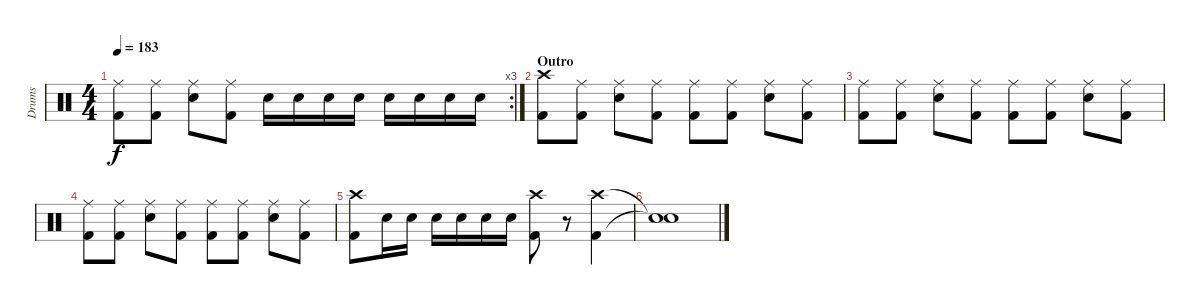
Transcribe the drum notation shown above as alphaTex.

\track ("Drums" "Drums") {instrument percussion}
\staff {score}
\articulation defaults
\rc 3
\ts (4 4)
\tempo 183
\clef neutral
\ks c
("Ride (middle)" "Kick (hit) 2").8{dy f} ("Ride (middle)" "Kick (hit) 2").8 ("Ride (middle)" "Electric Snare (hit)").8 ("Ride (middle)" "Kick (hit) 2").8 "Electric Snare (hit)".16 "Electric Snare (hit)".16 "Electric Snare (hit)".16 "Electric Snare (hit)".16 "Electric Snare (hit)".16 "Electric Snare (hit)".16 "Electric Snare (hit)".16 "Electric Snare (hit)".16 |
\section ("" "Outro")
("Crash high (hit)" "Kick (hit) 2").8 ("Ride (middle)" "Kick (hit) 2").8 ("Ride (middle)" "Electric Snare (hit)").8 ("Ride (middle)" "Kick (hit) 2").8 ("Ride (middle)" "Kick (hit) 2").8 ("Ride (middle)" "Kick (hit) 2").8 ("Ride (middle)" "Electric Snare (hit)").8 ("Ride (middle)" "Kick (hit) 2").8 |
("Ride (middle)" "Kick (hit) 2").8 ("Ride (middle)" "Kick (hit) 2").8 ("Ride (middle)" "Electric Snare (hit)").8 ("Ride (middle)" "Kick (hit) 2").8 ("Ride (middle)" "Kick (hit) 2").8 ("Ride (middle)" "Kick (hit) 2").8 ("Ride (middle)" "Electric Snare (hit)").8 ("Ride (middle)" "Kick (hit) 2").8 |
("Ride (middle)" "Kick (hit) 2").8 ("Ride (middle)" "Kick (hit) 2").8 ("Ride (middle)" "Electric Snare (hit)").8 ("Ride (middle)" "Kick (hit) 2").8 ("Ride (middle)" "Kick (hit) 2").8 ("Ride (middle)" "Kick (hit) 2").8 ("Ride (middle)" "Electric Snare (hit)").8 ("Ride (middle)" "Kick (hit) 2").8 |
("Crash high (hit)" "Kick (hit) 2").8 "Electric Snare (hit)".16 "Electric Snare (hit)".16 "Electric Snare (hit)".16 "Electric Snare (hit)".16 "Electric Snare (hit)".16 "Electric Snare (hit)".16 ("Crash high (hit)" "Kick (hit) 2").8 r.8 ("Crash high (hit)" "Kick (hit) 2").4 |
("Snare (hit)"{t} "Snare (hit)"{t}).1
